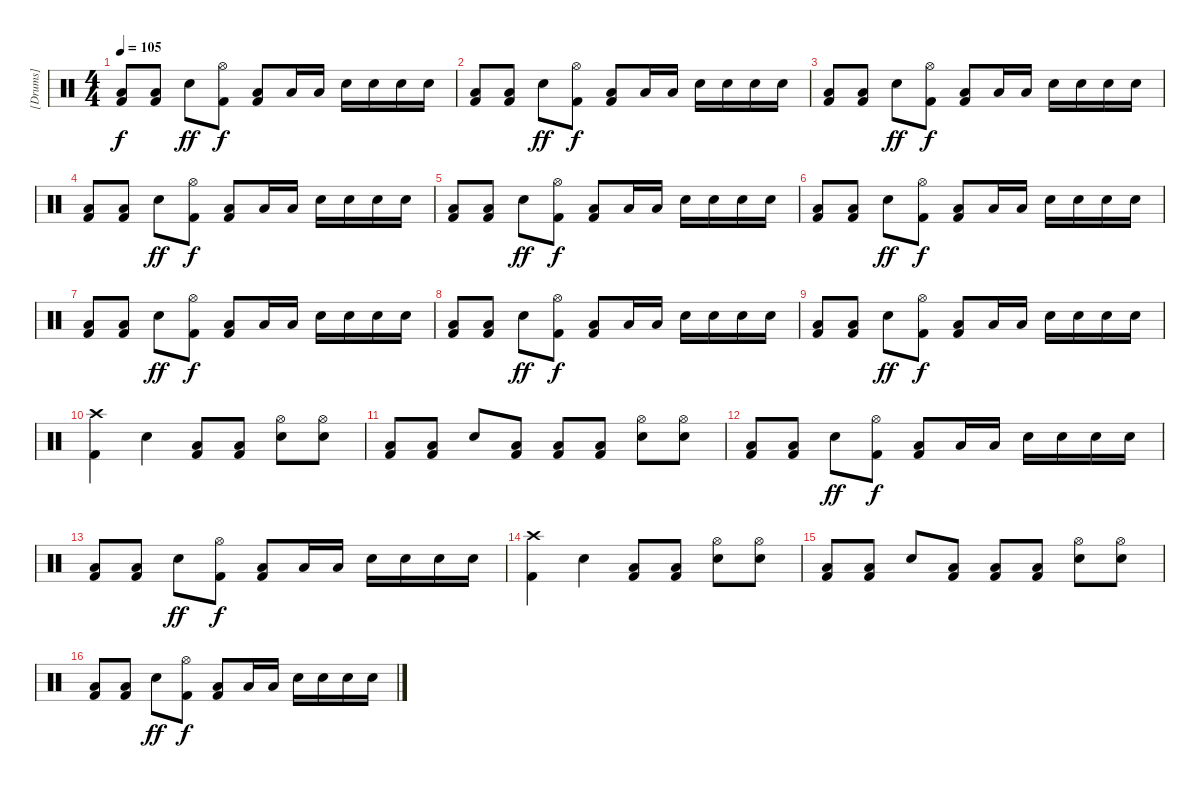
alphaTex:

\track ("[Drums]" "[Drums]") {instrument percussion}
\staff {score}
\articulation defaults
\ts (4 4)
\tempo 105
\clef neutral
\ks c
("Low Floor Tom (hit)" "Kick (hit) 2").8{dy f} ("Low Floor Tom (hit)" "Kick (hit) 2").8 "Snare (hit) 2".8{dy ff} ("Hi-Hat (open)" "Kick (hit) 2").8{dy f} ("Low Floor Tom (hit)" "Kick (hit) 2").8 "Low Floor Tom (hit)".16 "Low Floor Tom (hit)".16 "Snare (hit) 2".16 "Snare (hit) 2".16 "Snare (hit) 2".16 "Snare (hit) 2".16 |
("Low Floor Tom (hit)" "Kick (hit) 2").8 ("Low Floor Tom (hit)" "Kick (hit) 2").8 "Snare (hit) 2".8{dy ff} ("Hi-Hat (open)" "Kick (hit) 2").8{dy f} ("Low Floor Tom (hit)" "Kick (hit) 2").8 "Low Floor Tom (hit)".16 "Low Floor Tom (hit)".16 "Snare (hit) 2".16 "Snare (hit) 2".16 "Snare (hit) 2".16 "Snare (hit) 2".16 |
("Low Floor Tom (hit)" "Kick (hit) 2").8 ("Low Floor Tom (hit)" "Kick (hit) 2").8 "Snare (hit) 2".8{dy ff} ("Hi-Hat (open)" "Kick (hit) 2").8{dy f} ("Low Floor Tom (hit)" "Kick (hit) 2").8 "Low Floor Tom (hit)".16 "Low Floor Tom (hit)".16 "Snare (hit) 2".16 "Snare (hit) 2".16 "Snare (hit) 2".16 "Snare (hit) 2".16 |
("Low Floor Tom (hit)" "Kick (hit) 2").8 ("Low Floor Tom (hit)" "Kick (hit) 2").8 "Snare (hit) 2".8{dy ff} ("Hi-Hat (open)" "Kick (hit) 2").8{dy f} ("Low Floor Tom (hit)" "Kick (hit) 2").8 "Low Floor Tom (hit)".16 "Low Floor Tom (hit)".16 "Snare (hit) 2".16 "Snare (hit) 2".16 "Snare (hit) 2".16 "Snare (hit) 2".16 |
("Low Floor Tom (hit)" "Kick (hit) 2").8 ("Low Floor Tom (hit)" "Kick (hit) 2").8 "Snare (hit) 2".8{dy ff} ("Hi-Hat (open)" "Kick (hit) 2").8{dy f} ("Low Floor Tom (hit)" "Kick (hit) 2").8 "Low Floor Tom (hit)".16 "Low Floor Tom (hit)".16 "Snare (hit) 2".16 "Snare (hit) 2".16 "Snare (hit) 2".16 "Snare (hit) 2".16 |
("Low Floor Tom (hit)" "Kick (hit) 2").8 ("Low Floor Tom (hit)" "Kick (hit) 2").8 "Snare (hit) 2".8{dy ff} ("Hi-Hat (open)" "Kick (hit) 2").8{dy f} ("Low Floor Tom (hit)" "Kick (hit) 2").8 "Low Floor Tom (hit)".16 "Low Floor Tom (hit)".16 "Snare (hit) 2".16 "Snare (hit) 2".16 "Snare (hit) 2".16 "Snare (hit) 2".16 |
("Low Floor Tom (hit)" "Kick (hit) 2").8 ("Low Floor Tom (hit)" "Kick (hit) 2").8 "Snare (hit) 2".8{dy ff} ("Hi-Hat (open)" "Kick (hit) 2").8{dy f} ("Low Floor Tom (hit)" "Kick (hit) 2").8 "Low Floor Tom (hit)".16 "Low Floor Tom (hit)".16 "Snare (hit) 2".16 "Snare (hit) 2".16 "Snare (hit) 2".16 "Snare (hit) 2".16 |
("Low Floor Tom (hit)" "Kick (hit) 2").8 ("Low Floor Tom (hit)" "Kick (hit) 2").8 "Snare (hit) 2".8{dy ff} ("Hi-Hat (open)" "Kick (hit) 2").8{dy f} ("Low Floor Tom (hit)" "Kick (hit) 2").8 "Low Floor Tom (hit)".16 "Low Floor Tom (hit)".16 "Snare (hit) 2".16 "Snare (hit) 2".16 "Snare (hit) 2".16 "Snare (hit) 2".16 |
("Low Floor Tom (hit)" "Kick (hit) 2").8 ("Low Floor Tom (hit)" "Kick (hit) 2").8 "Snare (hit) 2".8{dy ff} ("Hi-Hat (open)" "Kick (hit) 2").8{dy f} ("Low Floor Tom (hit)" "Kick (hit) 2").8 "Low Floor Tom (hit)".16 "Low Floor Tom (hit)".16 "Snare (hit) 2".16 "Snare (hit) 2".16 "Snare (hit) 2".16 "Snare (hit) 2".16 |
\section ("" "")
("Crash high (hit)" "Kick (hit) 2").4 "Snare (hit) 2".4 ("Low Floor Tom (hit)" "Kick (hit) 2").8 ("Low Floor Tom (hit)" "Kick (hit) 2").8 ("Hi-Hat (open)" "Snare (hit) 2").8 ("Hi-Hat (open)" "Snare (hit) 2").8 |
("Low Floor Tom (hit)" "Kick (hit) 2").8 ("Low Floor Tom (hit)" "Kick (hit) 2").8 "Snare (hit) 2".8 ("Low Floor Tom (hit)" "Kick (hit) 2").8 ("Low Floor Tom (hit)" "Kick (hit) 2").8 ("Low Floor Tom (hit)" "Kick (hit) 2").8 ("Hi-Hat (open)" "Snare (hit) 2").8 ("Hi-Hat (open)" "Snare (hit) 2").8 |
\section ("" "")
("Low Floor Tom (hit)" "Kick (hit) 2").8 ("Low Floor Tom (hit)" "Kick (hit) 2").8 "Snare (hit) 2".8{dy ff} ("Hi-Hat (open)" "Kick (hit) 2").8{dy f} ("Low Floor Tom (hit)" "Kick (hit) 2").8 "Low Floor Tom (hit)".16 "Low Floor Tom (hit)".16 "Snare (hit) 2".16 "Snare (hit) 2".16 "Snare (hit) 2".16 "Snare (hit) 2".16 |
("Low Floor Tom (hit)" "Kick (hit) 2").8 ("Low Floor Tom (hit)" "Kick (hit) 2").8 "Snare (hit) 2".8{dy ff} ("Hi-Hat (open)" "Kick (hit) 2").8{dy f} ("Low Floor Tom (hit)" "Kick (hit) 2").8 "Low Floor Tom (hit)".16 "Low Floor Tom (hit)".16 "Snare (hit) 2".16 "Snare (hit) 2".16 "Snare (hit) 2".16 "Snare (hit) 2".16 |
\section ("" "")
("Crash high (hit)" "Kick (hit) 2").4 "Snare (hit) 2".4 ("Low Floor Tom (hit)" "Kick (hit) 2").8 ("Low Floor Tom (hit)" "Kick (hit) 2").8 ("Hi-Hat (open)" "Snare (hit) 2").8 ("Hi-Hat (open)" "Snare (hit) 2").8 |
("Low Floor Tom (hit)" "Kick (hit) 2").8 ("Low Floor Tom (hit)" "Kick (hit) 2").8 "Snare (hit) 2".8 ("Low Floor Tom (hit)" "Kick (hit) 2").8 ("Low Floor Tom (hit)" "Kick (hit) 2").8 ("Low Floor Tom (hit)" "Kick (hit) 2").8 ("Hi-Hat (open)" "Snare (hit) 2").8 ("Hi-Hat (open)" "Snare (hit) 2").8 |
\section ("" "")
("Low Floor Tom (hit)" "Kick (hit) 2").8 ("Low Floor Tom (hit)" "Kick (hit) 2").8 "Snare (hit) 2".8{dy ff} ("Hi-Hat (open)" "Kick (hit) 2").8{dy f} ("Low Floor Tom (hit)" "Kick (hit) 2").8 "Low Floor Tom (hit)".16 "Low Floor Tom (hit)".16 "Snare (hit) 2".16 "Snare (hit) 2".16 "Snare (hit) 2".16 "Snare (hit) 2".16
